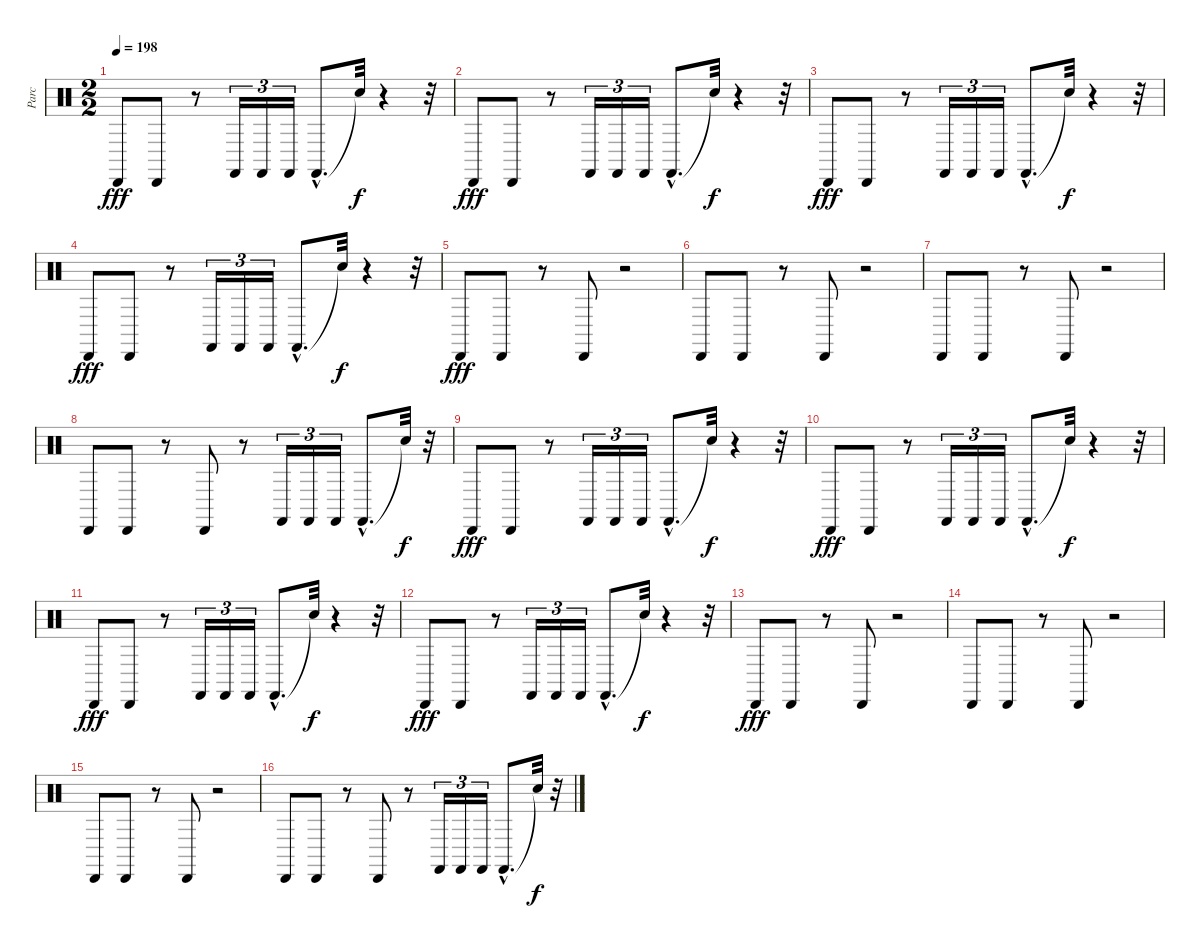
\track ("Parc" "Parc") {instrument percussion}
\staff {score}
\articulation defaults
\ts (2 2)
\tempo 198
\clef neutral
\ks c "Cabasa (hit)".8{dy fff} "Cabasa (hit)".8
r.8 "Castanets (hit)".16{tu (3 2)} "Castanets (hit)".16{tu (3 2)} "Castanets (hit)".16{tu (3 2)} "Castanets (hit)"{hac}.8{d} "Snare (hit)"{t}.32{dy f} r.4 r.32 |
"Cabasa (hit)".8{dy fff} "Cabasa (hit)".8 r.8 "Castanets (hit)".16{tu (3 2)} "Castanets (hit)".16{tu (3 2)} "Castanets (hit)".16{tu (3 2)} "Castanets (hit)"{hac}.8{d} "Snare (hit)"{t}.32{dy f} r.4 r.32 |
"Cabasa (hit)".8{dy fff} "Cabasa (hit)".8 r.8 "Castanets (hit)".16{tu (3 2)} "Castanets (hit)".16{tu (3 2)} "Castanets (hit)".16{tu (3 2)} "Castanets (hit)"{hac}.8{d} "Snare (hit)"{t}.32{dy f} r.4 r.32 |
"Cabasa (hit)".8{dy fff} "Cabasa (hit)".8 r.8 "Castanets (hit)".16{tu (3 2)} "Castanets (hit)".16{tu (3 2)} "Castanets (hit)".16{tu (3 2)} "Castanets (hit)"{hac}.8{d} "Snare (hit)"{t}.32{dy f} r.4 r.32 |
"Cabasa (hit)".8{dy fff} "Cabasa (hit)".8 r.8 "Cabasa (hit)".8 r.2 |
"Cabasa (hit)".8 "Cabasa (hit)".8 r.8 "Cabasa (hit)".8 r.2 |
"Cabasa (hit)".8 "Cabasa (hit)".8 r.8 "Cabasa (hit)".8 r.2 |
"Cabasa (hit)".8 "Cabasa (hit)".8 r.8 "Cabasa (hit)".8 r.8 "Castanets (hit)".16{tu (3 2)} "Castanets (hit)".16{tu (3 2)} "Castanets (hit)".16{tu (3 2)} "Castanets (hit)"{hac}.8{d} "Snare (hit)"{t}.32{dy f} r.32 |
"Cabasa (hit)".8{dy fff} "Cabasa (hit)".8 r.8 "Castanets (hit)".16{tu (3 2)} "Castanets (hit)".16{tu (3 2)} "Castanets (hit)".16{tu (3 2)} "Castanets (hit)"{hac}.8{d} "Snare (hit)"{t}.32{dy f} r.4 r.32 |
"Cabasa (hit)".8{dy fff} "Cabasa (hit)".8 r.8 "Castanets (hit)".16{tu (3 2)} "Castanets (hit)".16{tu (3 2)} "Castanets (hit)".16{tu (3 2)} "Castanets (hit)"{hac}.8{d} "Snare (hit)"{t}.32{dy f} r.4 r.32 |
"Cabasa (hit)".8{dy fff} "Cabasa (hit)".8 r.8 "Castanets (hit)".16{tu (3 2)} "Castanets (hit)".16{tu (3 2)} "Castanets (hit)".16{tu (3 2)} "Castanets (hit)"{hac}.8{d} "Snare (hit)"{t}.32{dy f} r.4 r.32 |
"Cabasa (hit)".8{dy fff} "Cabasa (hit)".8 r.8 "Castanets (hit)".16{tu (3 2)} "Castanets (hit)".16{tu (3 2)} "Castanets (hit)".16{tu (3 2)} "Castanets (hit)"{hac}.8{d} "Snare (hit)"{t}.32{dy f} r.4 r.32 |
"Cabasa (hit)".8{dy fff} "Cabasa (hit)".8 r.8 "Cabasa (hit)".8 r.2 |
"Cabasa (hit)".8 "Cabasa (hit)".8 r.8 "Cabasa (hit)".8 r.2 |
"Cabasa (hit)".8 "Cabasa (hit)".8 r.8 "Cabasa (hit)".8 r.2 |
"Cabasa (hit)".8 "Cabasa (hit)".8 r.8 "Cabasa (hit)".8 r.8 "Castanets (hit)".16{tu (3 2)} "Castanets (hit)".16{tu (3 2)} "Castanets (hit)".16{tu (3 2)} "Castanets (hit)"{hac}.8{d} "Snare (hit)"{t}.32{dy f} r.32
